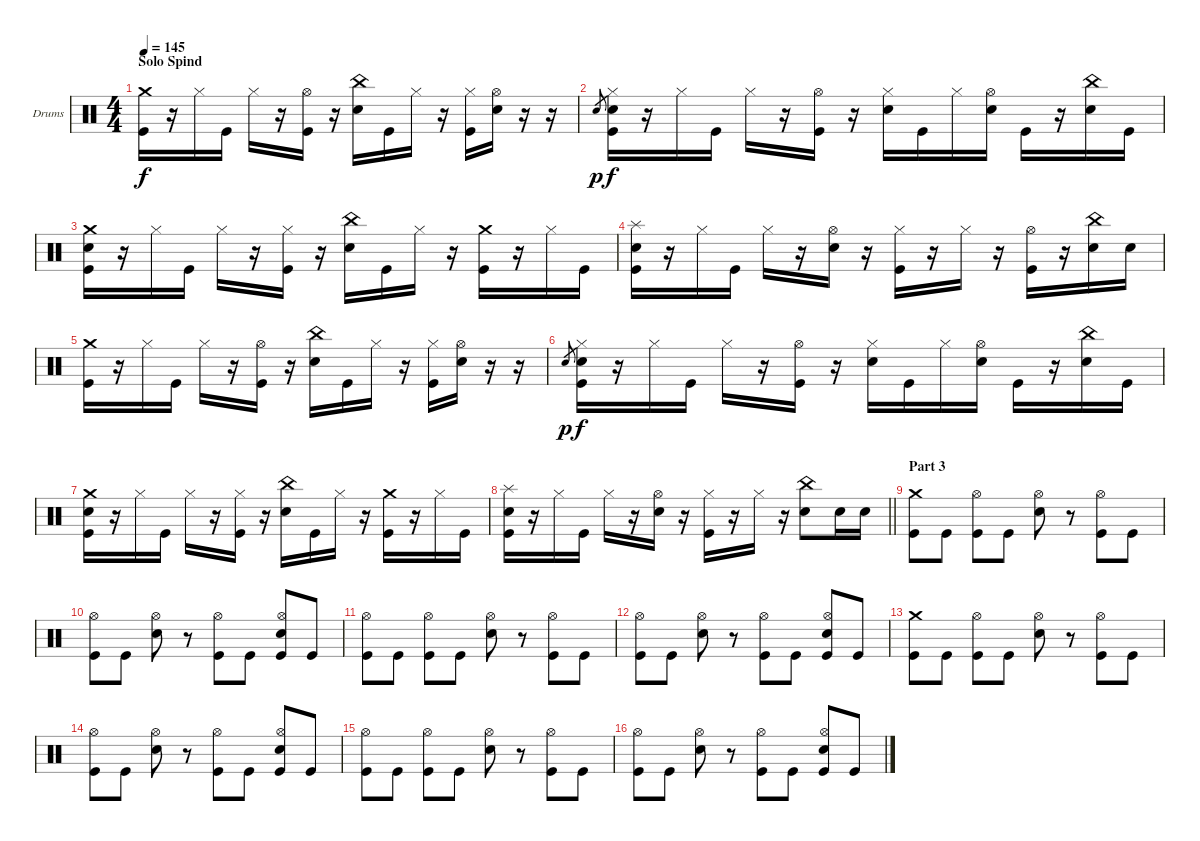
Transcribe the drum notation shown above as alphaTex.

\bracketExtendMode groupsimilarinstruments
\firstSystemTrackNameOrientation horizontal
\otherSystemsTrackNameOrientation horizontal
\track ("Drumkit" "Drums") {instrument percussion}
\staff {score}
\articulation defaults
\ts (4 4)
\section ("" "Solo Spind")
\tempo 145
\clef neutral
\ks c
("Crash medium (hit)" "Kick (hit)").16{dy f} r.16 "Hi-Hat (closed)".16 "Kick (hit)".16 "Hi-Hat (closed)".16 r.16 ("Hi-Hat (open)" "Kick (hit)").16 r.16 ("China (hit)" "Snare (hit) 2").16 "Kick (hit)".16 "Hi-Hat (closed)".16 r.16 ("Hi-Hat (closed)" "Kick (hit)").16 ("Hi-Hat (open)" "Snare (hit) 2").16 r.16 r.16 |
"Snare (hit) 2".8{gr dy p} ("Hi-Hat (closed)" "Snare (hit) 2" "Kick (hit)").16{dy f} r.16 "Hi-Hat (closed)".16 "Kick (hit)".16 "Hi-Hat (closed)".16 r.16 ("Hi-Hat (open)" "Kick (hit)").16 r.16 ("Hi-Hat (closed)" "Snare (hit) 2").16 "Kick (hit)".16 "Hi-Hat (closed)".16 ("Hi-Hat (open)" "Snare (hit) 2").16 "Kick (hit)".16 r.16 ("China (hit)" "Snare (hit) 2").16 "Kick (hit)".16 |
("Crash medium (hit)" "Snare (hit) 2" "Kick (hit)").16 r.16 "Hi-Hat (closed)".16 "Kick (hit)".16 "Hi-Hat (closed)".16 r.16 ("Hi-Hat (closed)" "Kick (hit)").16 r.16 ("China (hit)" "Snare (hit) 2").16 "Kick (hit)".16 "Hi-Hat (closed)".16 r.16 ("Crash medium (hit)" "Kick (hit)").16 r.16 "Hi-Hat (closed)".16 "Kick (hit)".16 |
("Splash (hit)" "Snare (hit) 2" "Kick (hit)").16 r.16 "Hi-Hat (closed)".16 "Kick (hit)".16 "Hi-Hat (closed)".16 r.16 ("Hi-Hat (open)" "Snare (hit) 2").16 r.16 ("Hi-Hat (closed)" "Kick (hit)").16 r.16 "Hi-Hat (closed)".16 r.16 ("Hi-Hat (open)" "Kick (hit)").16 r.16 ("China (hit)" "Snare (hit) 2").16 "Snare (hit) 2".16 |
("Crash medium (hit)" "Kick (hit)").16 r.16 "Hi-Hat (closed)".16 "Kick (hit)".16 "Hi-Hat (closed)".16 r.16 ("Hi-Hat (open)" "Kick (hit)").16 r.16 ("China (hit)" "Snare (hit) 2").16 "Kick (hit)".16 "Hi-Hat (closed)".16 r.16 ("Hi-Hat (closed)" "Kick (hit)").16 ("Hi-Hat (open)" "Snare (hit) 2").16 r.16 r.16 |
"Snare (hit) 2".8{gr dy p} ("Hi-Hat (closed)" "Snare (hit) 2" "Kick (hit)").16{dy f} r.16 "Hi-Hat (closed)".16 "Kick (hit)".16 "Hi-Hat (closed)".16 r.16 ("Hi-Hat (open)" "Kick (hit)").16 r.16 ("Hi-Hat (closed)" "Snare (hit) 2").16 "Kick (hit)".16 "Hi-Hat (closed)".16 ("Hi-Hat (open)" "Snare (hit) 2").16 "Kick (hit)".16 r.16 ("China (hit)" "Snare (hit) 2").16 "Kick (hit)".16 |
("Crash medium (hit)" "Snare (hit) 2" "Kick (hit)").16 r.16 "Hi-Hat (closed)".16 "Kick (hit)".16 "Hi-Hat (closed)".16 r.16 ("Hi-Hat (closed)" "Kick (hit)").16 r.16 ("China (hit)" "Snare (hit) 2").16 "Kick (hit)".16 "Hi-Hat (closed)".16 r.16 ("Crash medium (hit)" "Kick (hit)").16 r.16 "Hi-Hat (closed)".16 "Kick (hit)".16 |
\barLineRight lightlight
("Splash (hit)" "Snare (hit) 2" "Kick (hit)").16 r.16 "Hi-Hat (closed)".16 "Kick (hit)".16 "Hi-Hat (closed)".16 r.16 ("Hi-Hat (open)" "Snare (hit) 2").16 r.16 ("Hi-Hat (closed)" "Kick (hit)").16 r.16 "Hi-Hat (closed)".16 r.16 ("China (hit)" "Snare (hit) 2").8 "Snare (hit) 2".16 "Snare (hit) 2".16 |
\section ("" "Part 3")
("Crash medium (hit)" "Kick (hit)").8 "Kick (hit)".8 ("Hi-Hat (open)" "Kick (hit)").8 "Kick (hit)".8 ("Hi-Hat (open)" "Snare (hit) 2").8 r.8 ("Hi-Hat (open)" "Kick (hit)").8 "Kick (hit)".8 |
("Hi-Hat (open)" "Kick (hit)").8 "Kick (hit)".8 ("Hi-Hat (open)" "Snare (hit) 2").8 r.8 ("Hi-Hat (open)" "Kick (hit)").8 "Kick (hit)".8 ("Hi-Hat (open)" "Snare (hit) 2" "Kick (hit)").8 "Kick (hit)".8 |
("Hi-Hat (open)" "Kick (hit)").8 "Kick (hit)".8 ("Hi-Hat (open)" "Kick (hit)").8 "Kick (hit)".8 ("Hi-Hat (open)" "Snare (hit) 2").8 r.8 ("Hi-Hat (open)" "Kick (hit)").8 "Kick (hit)".8 |
("Hi-Hat (open)" "Kick (hit)").8 "Kick (hit)".8 ("Hi-Hat (open)" "Snare (hit) 2").8 r.8 ("Hi-Hat (open)" "Kick (hit)").8 "Kick (hit)".8 ("Hi-Hat (open)" "Snare (hit) 2" "Kick (hit)").8 "Kick (hit)".8 |
("Crash medium (hit)" "Kick (hit)").8 "Kick (hit)".8 ("Hi-Hat (open)" "Kick (hit)").8 "Kick (hit)".8 ("Hi-Hat (open)" "Snare (hit) 2").8 r.8 ("Hi-Hat (open)" "Kick (hit)").8 "Kick (hit)".8 |
("Hi-Hat (open)" "Kick (hit)").8 "Kick (hit)".8 ("Hi-Hat (open)" "Snare (hit) 2").8 r.8 ("Hi-Hat (open)" "Kick (hit)").8 "Kick (hit)".8 ("Hi-Hat (open)" "Snare (hit) 2" "Kick (hit)").8 "Kick (hit)".8 |
("Hi-Hat (open)" "Kick (hit)").8 "Kick (hit)".8 ("Hi-Hat (open)" "Kick (hit)").8 "Kick (hit)".8 ("Hi-Hat (open)" "Snare (hit) 2").8 r.8 ("Hi-Hat (open)" "Kick (hit)").8 "Kick (hit)".8 |
("Hi-Hat (open)" "Kick (hit)").8 "Kick (hit)".8 ("Hi-Hat (open)" "Snare (hit) 2").8 r.8 ("Hi-Hat (open)" "Kick (hit)").8 "Kick (hit)".8 ("Hi-Hat (open)" "Snare (hit) 2" "Kick (hit)").8 "Kick (hit)".8
